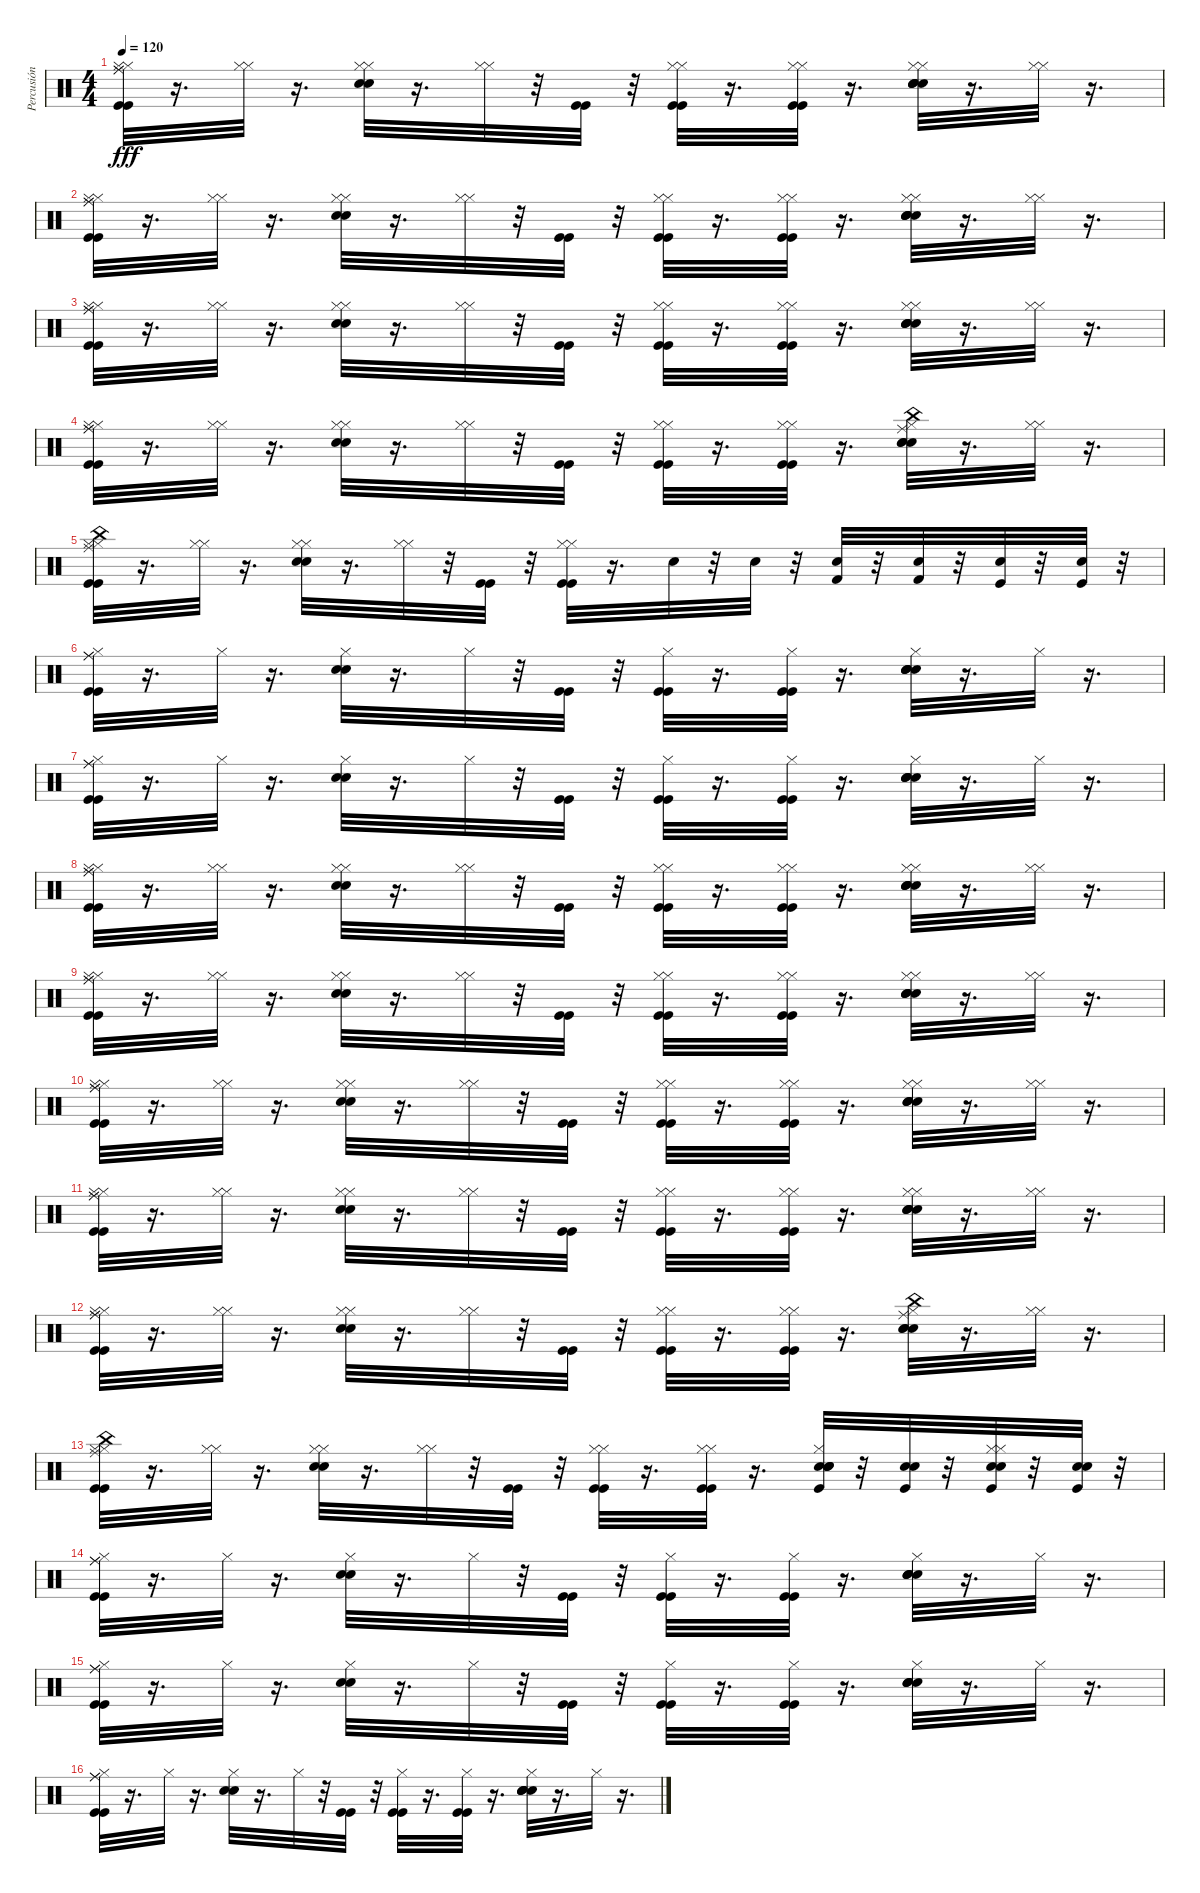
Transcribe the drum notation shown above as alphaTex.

\track ("Percusión" "Percusión") {instrument percussion}
\staff {score}
\articulation defaults
\ts (4 4)
\tempo 120
\clef neutral
\ks c
("Kick (hit)" "Hi-Hat (closed)" "Ride (middle)" "Kick (hit)" "Hi-Hat (closed)" "Ride (middle)").32{dy fff} r.16{d} ("Hi-Hat (closed)" "Hi-Hat (closed)").32 r.16{d} ("Snare (hit) 2" "Electric Snare (hit)" "Hi-Hat (closed)" "Hi-Hat (closed)").32 r.16{d} ("Hi-Hat (closed)" "Hi-Hat (closed)").32 r.32 ("Kick (hit)" "Kick (hit)").32 r.32 ("Kick (hit)" "Hi-Hat (closed)" "Kick (hit)" "Hi-Hat (closed)").32 r.16{d} ("Kick (hit)" "Hi-Hat (closed)" "Kick (hit)" "Hi-Hat (closed)").32 r.16{d} ("Snare (hit) 2" "Electric Snare (hit)" "Hi-Hat (closed)" "Snare (hit) 2" "Electric Snare (hit)" "Hi-Hat (closed)").32 r.16{d} ("Hi-Hat (closed)" "Hi-Hat (closed)").32 r.16{d} |
("Kick (hit)" "Hi-Hat (closed)" "Ride (middle)" "Kick (hit)" "Hi-Hat (closed)" "Ride (middle)").32 r.16{d} ("Hi-Hat (closed)" "Hi-Hat (closed)").32 r.16{d} ("Snare (hit) 2" "Electric Snare (hit)" "Hi-Hat (closed)" "Hi-Hat (closed)").32 r.16{d} ("Hi-Hat (closed)" "Hi-Hat (closed)").32 r.32 ("Kick (hit)" "Kick (hit)").32 r.32 ("Kick (hit)" "Hi-Hat (closed)" "Kick (hit)" "Hi-Hat (closed)").32 r.16{d} ("Kick (hit)" "Hi-Hat (closed)" "Kick (hit)" "Hi-Hat (closed)").32 r.16{d} ("Snare (hit) 2" "Electric Snare (hit)" "Hi-Hat (closed)" "Snare (hit) 2" "Electric Snare (hit)" "Hi-Hat (closed)").32 r.16{d} ("Hi-Hat (closed)" "Hi-Hat (closed)").32 r.16{d} |
("Kick (hit)" "Hi-Hat (closed)" "Ride (middle)" "Kick (hit)" "Hi-Hat (closed)" "Ride (middle)").32 r.16{d} ("Hi-Hat (closed)" "Hi-Hat (closed)").32 r.16{d} ("Snare (hit) 2" "Electric Snare (hit)" "Hi-Hat (closed)" "Hi-Hat (closed)").32 r.16{d} ("Hi-Hat (closed)" "Hi-Hat (closed)").32 r.32 ("Kick (hit)" "Kick (hit)").32 r.32 ("Kick (hit)" "Hi-Hat (closed)" "Kick (hit)" "Hi-Hat (closed)").32 r.16{d} ("Kick (hit)" "Hi-Hat (closed)" "Kick (hit)" "Hi-Hat (closed)").32 r.16{d} ("Snare (hit) 2" "Electric Snare (hit)" "Hi-Hat (closed)" "Snare (hit) 2" "Electric Snare (hit)" "Hi-Hat (closed)").32 r.16{d} ("Hi-Hat (closed)" "Hi-Hat (closed)").32 r.16{d} |
("Kick (hit)" "Hi-Hat (closed)" "Ride (middle)" "Kick (hit)" "Hi-Hat (closed)" "Ride (middle)").32 r.16{d} ("Hi-Hat (closed)" "Hi-Hat (closed)").32 r.16{d} ("Electric Snare (hit)" "Snare (hit) 2" "Hi-Hat (closed)" "Hi-Hat (closed)").32 r.16{d} ("Hi-Hat (closed)" "Hi-Hat (closed)").32 r.32 ("Kick (hit)" "Kick (hit)").32 r.32 ("Kick (hit)" "Hi-Hat (closed)" "Kick (hit)" "Hi-Hat (closed)").32 r.16{d} ("Kick (hit)" "Hi-Hat (closed)" "Kick (hit)" "Hi-Hat (closed)").32 r.16{d} ("Ride (middle)" "China (hit)" "Snare (hit) 2" "Electric Snare (hit)" "Hi-Hat (closed)" "Snare (hit) 2").32 r.16{d} ("Hi-Hat (closed)" "Hi-Hat (closed)").32 r.16{d} |
("China (hit)" "Kick (hit)" "Hi-Hat (closed)" "Ride (middle)" "Kick (hit)" "Hi-Hat (closed)").32 r.16{d} ("Hi-Hat (closed)" "Hi-Hat (closed)").32 r.16{d} ("Snare (hit) 2" "Electric Snare (hit)" "Hi-Hat (closed)" "Hi-Hat (closed)").32 r.16{d} ("Hi-Hat (closed)" "Hi-Hat (closed)").32 r.32 ("Kick (hit)" "Kick (hit)").32 r.32 ("Kick (hit)" "Hi-Hat (closed)" "Kick (hit)" "Hi-Hat (closed)").32 r.16{d} "Electric Snare (hit)".32 r.32 "Electric Snare (hit)".32 r.32 ("Kick (hit) 2" "Electric Snare (hit)").32 r.32 ("Kick (hit) 2" "Electric Snare (hit)").32 r.32 ("Snare (hit) 2" "Kick (hit)").32 r.32 ("Snare (hit) 2" "Kick (hit)").32 r.32 |
("Hi-Hat (closed)" "Kick (hit)" "Ride (middle)" "Kick (hit)" "Ride (middle)").32 r.16{d} "Hi-Hat (closed)".32 r.16{d} ("Snare (hit) 2" "Electric Snare (hit)" "Hi-Hat (closed)").32 r.16{d} "Hi-Hat (closed)".32 r.32 ("Kick (hit)" "Kick (hit)").32 r.32 ("Hi-Hat (closed)" "Kick (hit)" "Kick (hit)").32 r.16{d} ("Hi-Hat (closed)" "Kick (hit)" "Kick (hit)").32 r.16{d} ("Hi-Hat (closed)" "Snare (hit) 2" "Electric Snare (hit)" "Snare (hit) 2" "Electric Snare (hit)").32 r.16{d} "Hi-Hat (closed)".32 r.16{d} |
("Hi-Hat (closed)" "Kick (hit)" "Ride (middle)" "Kick (hit)" "Ride (middle)").32 r.16{d} "Hi-Hat (closed)".32 r.16{d} ("Snare (hit) 2" "Electric Snare (hit)" "Hi-Hat (closed)").32 r.16{d} "Hi-Hat (closed)".32 r.32 ("Kick (hit)" "Kick (hit)").32 r.32 ("Hi-Hat (closed)" "Kick (hit)" "Kick (hit)").32 r.16{d} ("Hi-Hat (closed)" "Kick (hit)" "Kick (hit)").32 r.16{d} ("Hi-Hat (closed)" "Snare (hit) 2" "Electric Snare (hit)" "Snare (hit) 2" "Electric Snare (hit)").32 r.16{d} "Hi-Hat (closed)".32 r.16{d} |
("Kick (hit)" "Hi-Hat (closed)" "Ride (middle)" "Kick (hit)" "Hi-Hat (closed)" "Ride (middle)").32 r.16{d} ("Hi-Hat (closed)" "Hi-Hat (closed)").32 r.16{d} ("Snare (hit) 2" "Electric Snare (hit)" "Hi-Hat (closed)" "Hi-Hat (closed)").32 r.16{d} ("Hi-Hat (closed)" "Hi-Hat (closed)").32 r.32 ("Kick (hit)" "Kick (hit)").32 r.32 ("Kick (hit)" "Hi-Hat (closed)" "Kick (hit)" "Hi-Hat (closed)").32 r.16{d} ("Kick (hit)" "Hi-Hat (closed)" "Kick (hit)" "Hi-Hat (closed)").32 r.16{d} ("Snare (hit) 2" "Electric Snare (hit)" "Hi-Hat (closed)" "Snare (hit) 2" "Electric Snare (hit)" "Hi-Hat (closed)").32 r.16{d} ("Hi-Hat (closed)" "Hi-Hat (closed)").32 r.16{d} |
("Kick (hit)" "Hi-Hat (closed)" "Ride (middle)" "Kick (hit)" "Hi-Hat (closed)" "Ride (middle)").32 r.16{d} ("Hi-Hat (closed)" "Hi-Hat (closed)").32 r.16{d} ("Snare (hit) 2" "Electric Snare (hit)" "Hi-Hat (closed)" "Hi-Hat (closed)").32 r.16{d} ("Hi-Hat (closed)" "Hi-Hat (closed)").32 r.32 ("Kick (hit)" "Kick (hit)").32 r.32 ("Kick (hit)" "Hi-Hat (closed)" "Kick (hit)" "Hi-Hat (closed)").32 r.16{d} ("Kick (hit)" "Hi-Hat (closed)" "Kick (hit)" "Hi-Hat (closed)").32 r.16{d} ("Snare (hit) 2" "Electric Snare (hit)" "Hi-Hat (closed)" "Snare (hit) 2" "Electric Snare (hit)" "Hi-Hat (closed)").32 r.16{d} ("Hi-Hat (closed)" "Hi-Hat (closed)").32 r.16{d} |
("Kick (hit)" "Hi-Hat (closed)" "Ride (middle)" "Kick (hit)" "Hi-Hat (closed)" "Ride (middle)").32 r.16{d} ("Hi-Hat (closed)" "Hi-Hat (closed)").32 r.16{d} ("Snare (hit) 2" "Electric Snare (hit)" "Hi-Hat (closed)" "Hi-Hat (closed)").32 r.16{d} ("Hi-Hat (closed)" "Hi-Hat (closed)").32 r.32 ("Kick (hit)" "Kick (hit)").32 r.32 ("Kick (hit)" "Hi-Hat (closed)" "Kick (hit)" "Hi-Hat (closed)").32 r.16{d} ("Kick (hit)" "Hi-Hat (closed)" "Kick (hit)" "Hi-Hat (closed)").32 r.16{d} ("Snare (hit) 2" "Electric Snare (hit)" "Hi-Hat (closed)" "Snare (hit) 2" "Electric Snare (hit)" "Hi-Hat (closed)").32 r.16{d} ("Hi-Hat (closed)" "Hi-Hat (closed)").32 r.16{d} |
("Kick (hit)" "Hi-Hat (closed)" "Ride (middle)" "Kick (hit)" "Hi-Hat (closed)" "Ride (middle)").32 r.16{d} ("Hi-Hat (closed)" "Hi-Hat (closed)").32 r.16{d} ("Snare (hit) 2" "Electric Snare (hit)" "Hi-Hat (closed)" "Hi-Hat (closed)").32 r.16{d} ("Hi-Hat (closed)" "Hi-Hat (closed)").32 r.32 ("Kick (hit)" "Kick (hit)").32 r.32 ("Kick (hit)" "Hi-Hat (closed)" "Kick (hit)" "Hi-Hat (closed)").32 r.16{d} ("Kick (hit)" "Hi-Hat (closed)" "Kick (hit)" "Hi-Hat (closed)").32 r.16{d} ("Snare (hit) 2" "Electric Snare (hit)" "Hi-Hat (closed)" "Snare (hit) 2" "Electric Snare (hit)" "Hi-Hat (closed)").32 r.16{d} ("Hi-Hat (closed)" "Hi-Hat (closed)").32 r.16{d} |
("Kick (hit)" "Hi-Hat (closed)" "Ride (middle)" "Kick (hit)" "Hi-Hat (closed)" "Ride (middle)").32 r.16{d} ("Hi-Hat (closed)" "Hi-Hat (closed)").32 r.16{d} ("Electric Snare (hit)" "Snare (hit) 2" "Hi-Hat (closed)" "Hi-Hat (closed)").32 r.16{d} ("Hi-Hat (closed)" "Hi-Hat (closed)").32 r.32 ("Kick (hit)" "Kick (hit)").32 r.32 ("Kick (hit)" "Hi-Hat (closed)" "Kick (hit)" "Hi-Hat (closed)").32 r.16{d} ("Kick (hit)" "Hi-Hat (closed)" "Kick (hit)" "Hi-Hat (closed)").32 r.16{d} ("Ride (middle)" "China (hit)" "Snare (hit) 2" "Electric Snare (hit)" "Hi-Hat (closed)" "Snare (hit) 2").32 r.16{d} ("Hi-Hat (closed)" "Hi-Hat (closed)").32 r.16{d} |
("China (hit)" "Kick (hit)" "Hi-Hat (closed)" "Ride (middle)" "Kick (hit)" "Hi-Hat (closed)").32 r.16{d} ("Hi-Hat (closed)" "Hi-Hat (closed)").32 r.16{d} ("Snare (hit) 2" "Electric Snare (hit)" "Hi-Hat (closed)" "Hi-Hat (closed)").32 r.16{d} ("Hi-Hat (closed)" "Hi-Hat (closed)").32 r.32 ("Kick (hit)" "Kick (hit)").32 r.32 ("Kick (hit)" "Hi-Hat (closed)" "Kick (hit)" "Hi-Hat (closed)").32 r.16{d} ("Kick (hit)" "Hi-Hat (closed)" "Kick (hit)" "Hi-Hat (closed)").32 r.16{d} ("Kick (hit)" "Snare (hit) 2" "Electric Snare (hit)" "Hi-Hat (closed)" "Snare (hit) 2" "Electric Snare (hit)").32 r.32 ("Electric Snare (hit)" "Snare (hit) 2" "Kick (hit)").32 r.32 ("Snare (hit) 2" "Electric Snare (hit)" "Kick (hit)" "Hi-Hat (closed)" "Hi-Hat (closed)").32 r.32 ("Electric Snare (hit)" "Snare (hit) 2" "Kick (hit)").32 r.32 |
("Hi-Hat (closed)" "Kick (hit)" "Ride (middle)" "Kick (hit)" "Ride (middle)").32 r.16{d} "Hi-Hat (closed)".32 r.16{d} ("Snare (hit) 2" "Electric Snare (hit)" "Hi-Hat (closed)").32 r.16{d} "Hi-Hat (closed)".32 r.32 ("Kick (hit)" "Kick (hit)").32 r.32 ("Hi-Hat (closed)" "Kick (hit)" "Kick (hit)").32 r.16{d} ("Hi-Hat (closed)" "Kick (hit)" "Kick (hit)").32 r.16{d} ("Hi-Hat (closed)" "Snare (hit) 2" "Electric Snare (hit)" "Snare (hit) 2" "Electric Snare (hit)").32 r.16{d} "Hi-Hat (closed)".32 r.16{d} |
("Hi-Hat (closed)" "Kick (hit)" "Ride (middle)" "Kick (hit)" "Ride (middle)").32 r.16{d} "Hi-Hat (closed)".32 r.16{d} ("Snare (hit) 2" "Electric Snare (hit)" "Hi-Hat (closed)").32 r.16{d} "Hi-Hat (closed)".32 r.32 ("Kick (hit)" "Kick (hit)").32 r.32 ("Hi-Hat (closed)" "Kick (hit)" "Kick (hit)").32 r.16{d} ("Hi-Hat (closed)" "Kick (hit)" "Kick (hit)").32 r.16{d} ("Hi-Hat (closed)" "Snare (hit) 2" "Electric Snare (hit)" "Snare (hit) 2" "Electric Snare (hit)").32 r.16{d} "Hi-Hat (closed)".32 r.16{d} |
("Hi-Hat (closed)" "Kick (hit)" "Ride (middle)" "Kick (hit)" "Ride (middle)").32 r.16{d} "Hi-Hat (closed)".32 r.16{d} ("Snare (hit) 2" "Electric Snare (hit)" "Hi-Hat (closed)").32 r.16{d} "Hi-Hat (closed)".32 r.32 ("Kick (hit)" "Kick (hit)").32 r.32 ("Hi-Hat (closed)" "Kick (hit)" "Kick (hit)").32 r.16{d} ("Hi-Hat (closed)" "Kick (hit)" "Kick (hit)").32 r.16{d} ("Hi-Hat (closed)" "Snare (hit) 2" "Electric Snare (hit)" "Snare (hit) 2" "Electric Snare (hit)").32 r.16{d} "Hi-Hat (closed)".32 r.16{d}
